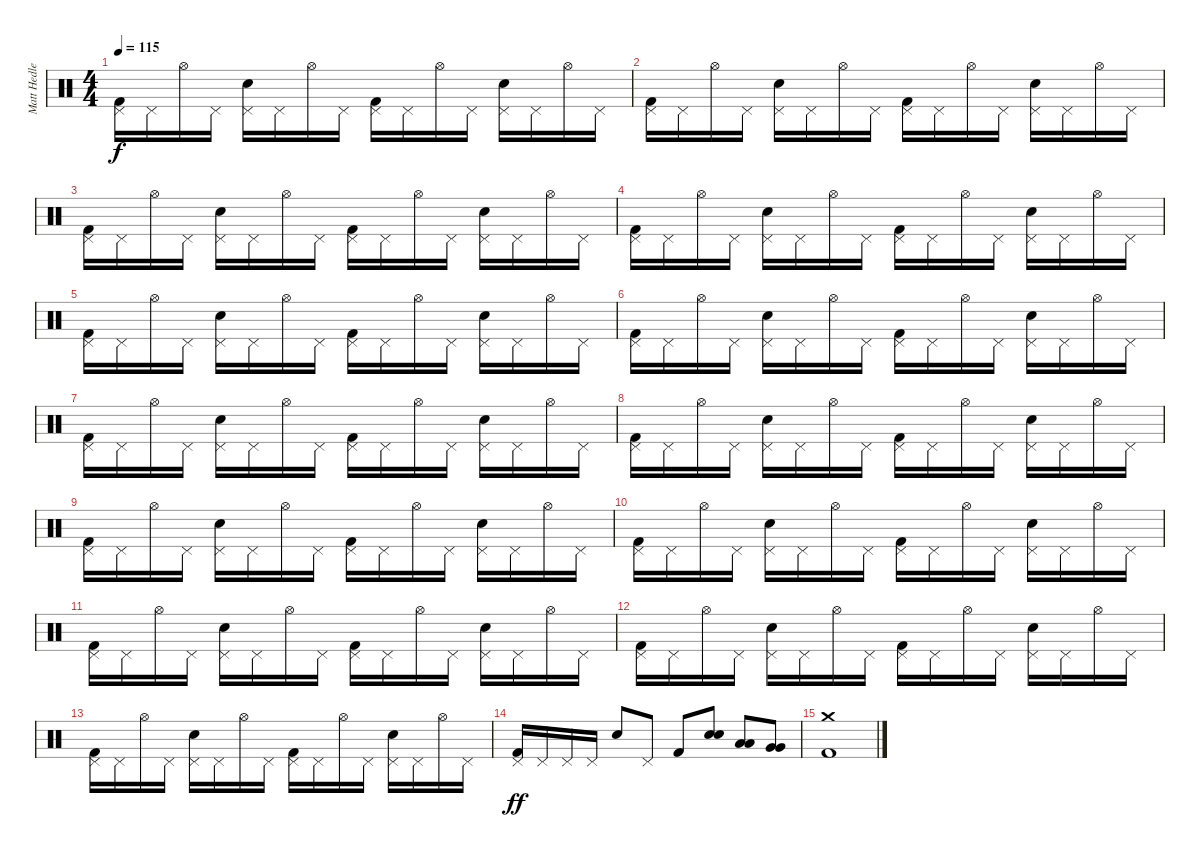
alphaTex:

\track ("Matt Hedlers" "Matt Hedle") {instrument percussion}
\staff {score}
\articulation defaults
\ts (4 4)
\tempo 115
\clef neutral
\ks c
("Pedal Hi-Hat (hit)" "Kick (hit) 2").16{dy f} "Pedal Hi-Hat (hit)".16 "Hi-Hat (open)".16 "Pedal Hi-Hat (hit)".16 ("Pedal Hi-Hat (hit)" "Snare (hit) 2").16 "Pedal Hi-Hat (hit)".16 "Hi-Hat (open)".16 "Pedal Hi-Hat (hit)".16 ("Pedal Hi-Hat (hit)" "Kick (hit) 2").16 "Pedal Hi-Hat (hit)".16 "Hi-Hat (open)".16 "Pedal Hi-Hat (hit)".16 ("Pedal Hi-Hat (hit)" "Snare (hit) 2").16 "Pedal Hi-Hat (hit)".16 "Hi-Hat (open)".16 "Pedal Hi-Hat (hit)".16 |
("Pedal Hi-Hat (hit)" "Kick (hit) 2").16 "Pedal Hi-Hat (hit)".16 "Hi-Hat (open)".16 "Pedal Hi-Hat (hit)".16 ("Pedal Hi-Hat (hit)" "Snare (hit) 2").16 "Pedal Hi-Hat (hit)".16 "Hi-Hat (open)".16 "Pedal Hi-Hat (hit)".16 ("Pedal Hi-Hat (hit)" "Kick (hit) 2").16 "Pedal Hi-Hat (hit)".16 "Hi-Hat (open)".16 "Pedal Hi-Hat (hit)".16 ("Pedal Hi-Hat (hit)" "Snare (hit) 2").16 "Pedal Hi-Hat (hit)".16 "Hi-Hat (open)".16 "Pedal Hi-Hat (hit)".16 |
("Pedal Hi-Hat (hit)" "Kick (hit) 2").16 "Pedal Hi-Hat (hit)".16 "Hi-Hat (open)".16 "Pedal Hi-Hat (hit)".16 ("Pedal Hi-Hat (hit)" "Snare (hit) 2").16 "Pedal Hi-Hat (hit)".16 "Hi-Hat (open)".16 "Pedal Hi-Hat (hit)".16 ("Pedal Hi-Hat (hit)" "Kick (hit) 2").16 "Pedal Hi-Hat (hit)".16 "Hi-Hat (open)".16 "Pedal Hi-Hat (hit)".16 ("Pedal Hi-Hat (hit)" "Snare (hit) 2").16 "Pedal Hi-Hat (hit)".16 "Hi-Hat (open)".16 "Pedal Hi-Hat (hit)".16 |
("Pedal Hi-Hat (hit)" "Kick (hit) 2").16 "Pedal Hi-Hat (hit)".16 "Hi-Hat (open)".16 "Pedal Hi-Hat (hit)".16 ("Pedal Hi-Hat (hit)" "Snare (hit) 2").16 "Pedal Hi-Hat (hit)".16 "Hi-Hat (open)".16 "Pedal Hi-Hat (hit)".16 ("Pedal Hi-Hat (hit)" "Kick (hit) 2").16 "Pedal Hi-Hat (hit)".16 "Hi-Hat (open)".16 "Pedal Hi-Hat (hit)".16 ("Pedal Hi-Hat (hit)" "Snare (hit) 2").16 "Pedal Hi-Hat (hit)".16 "Hi-Hat (open)".16 "Pedal Hi-Hat (hit)".16 |
("Pedal Hi-Hat (hit)" "Kick (hit) 2").16 "Pedal Hi-Hat (hit)".16 "Hi-Hat (open)".16 "Pedal Hi-Hat (hit)".16 ("Pedal Hi-Hat (hit)" "Snare (hit) 2").16 "Pedal Hi-Hat (hit)".16 "Hi-Hat (open)".16 "Pedal Hi-Hat (hit)".16 ("Pedal Hi-Hat (hit)" "Kick (hit) 2").16 "Pedal Hi-Hat (hit)".16 "Hi-Hat (open)".16 "Pedal Hi-Hat (hit)".16 ("Pedal Hi-Hat (hit)" "Snare (hit) 2").16 "Pedal Hi-Hat (hit)".16 "Hi-Hat (open)".16 "Pedal Hi-Hat (hit)".16 |
("Pedal Hi-Hat (hit)" "Kick (hit) 2").16 "Pedal Hi-Hat (hit)".16 "Hi-Hat (open)".16 "Pedal Hi-Hat (hit)".16 ("Pedal Hi-Hat (hit)" "Snare (hit) 2").16 "Pedal Hi-Hat (hit)".16 "Hi-Hat (open)".16 "Pedal Hi-Hat (hit)".16 ("Pedal Hi-Hat (hit)" "Kick (hit) 2").16 "Pedal Hi-Hat (hit)".16 "Hi-Hat (open)".16 "Pedal Hi-Hat (hit)".16 ("Pedal Hi-Hat (hit)" "Snare (hit) 2").16 "Pedal Hi-Hat (hit)".16 "Hi-Hat (open)".16 "Pedal Hi-Hat (hit)".16 |
("Pedal Hi-Hat (hit)" "Kick (hit) 2").16 "Pedal Hi-Hat (hit)".16 "Hi-Hat (open)".16 "Pedal Hi-Hat (hit)".16 ("Pedal Hi-Hat (hit)" "Snare (hit) 2").16 "Pedal Hi-Hat (hit)".16 "Hi-Hat (open)".16 "Pedal Hi-Hat (hit)".16 ("Pedal Hi-Hat (hit)" "Kick (hit) 2").16 "Pedal Hi-Hat (hit)".16 "Hi-Hat (open)".16 "Pedal Hi-Hat (hit)".16 ("Pedal Hi-Hat (hit)" "Snare (hit) 2").16 "Pedal Hi-Hat (hit)".16 "Hi-Hat (open)".16 "Pedal Hi-Hat (hit)".16 |
("Pedal Hi-Hat (hit)" "Kick (hit) 2").16 "Pedal Hi-Hat (hit)".16 "Hi-Hat (open)".16 "Pedal Hi-Hat (hit)".16 ("Pedal Hi-Hat (hit)" "Snare (hit) 2").16 "Pedal Hi-Hat (hit)".16 "Hi-Hat (open)".16 "Pedal Hi-Hat (hit)".16 ("Pedal Hi-Hat (hit)" "Kick (hit) 2").16 "Pedal Hi-Hat (hit)".16 "Hi-Hat (open)".16 "Pedal Hi-Hat (hit)".16 ("Pedal Hi-Hat (hit)" "Snare (hit) 2").16 "Pedal Hi-Hat (hit)".16 "Hi-Hat (open)".16 "Pedal Hi-Hat (hit)".16 |
("Pedal Hi-Hat (hit)" "Kick (hit) 2").16 "Pedal Hi-Hat (hit)".16 "Hi-Hat (open)".16 "Pedal Hi-Hat (hit)".16 ("Pedal Hi-Hat (hit)" "Snare (hit) 2").16 "Pedal Hi-Hat (hit)".16 "Hi-Hat (open)".16 "Pedal Hi-Hat (hit)".16 ("Pedal Hi-Hat (hit)" "Kick (hit) 2").16 "Pedal Hi-Hat (hit)".16 "Hi-Hat (open)".16 "Pedal Hi-Hat (hit)".16 ("Pedal Hi-Hat (hit)" "Snare (hit) 2").16 "Pedal Hi-Hat (hit)".16 "Hi-Hat (open)".16 "Pedal Hi-Hat (hit)".16 |
("Pedal Hi-Hat (hit)" "Kick (hit) 2").16 "Pedal Hi-Hat (hit)".16 "Hi-Hat (open)".16 "Pedal Hi-Hat (hit)".16 ("Pedal Hi-Hat (hit)" "Snare (hit) 2").16 "Pedal Hi-Hat (hit)".16 "Hi-Hat (open)".16 "Pedal Hi-Hat (hit)".16 ("Pedal Hi-Hat (hit)" "Kick (hit) 2").16 "Pedal Hi-Hat (hit)".16 "Hi-Hat (open)".16 "Pedal Hi-Hat (hit)".16 ("Pedal Hi-Hat (hit)" "Snare (hit) 2").16 "Pedal Hi-Hat (hit)".16 "Hi-Hat (open)".16 "Pedal Hi-Hat (hit)".16 |
("Pedal Hi-Hat (hit)" "Kick (hit) 2").16 "Pedal Hi-Hat (hit)".16 "Hi-Hat (open)".16 "Pedal Hi-Hat (hit)".16 ("Pedal Hi-Hat (hit)" "Snare (hit) 2").16 "Pedal Hi-Hat (hit)".16 "Hi-Hat (open)".16 "Pedal Hi-Hat (hit)".16 ("Pedal Hi-Hat (hit)" "Kick (hit) 2").16 "Pedal Hi-Hat (hit)".16 "Hi-Hat (open)".16 "Pedal Hi-Hat (hit)".16 ("Pedal Hi-Hat (hit)" "Snare (hit) 2").16 "Pedal Hi-Hat (hit)".16 "Hi-Hat (open)".16 "Pedal Hi-Hat (hit)".16 |
("Pedal Hi-Hat (hit)" "Kick (hit) 2").16 "Pedal Hi-Hat (hit)".16 "Hi-Hat (open)".16 "Pedal Hi-Hat (hit)".16 ("Pedal Hi-Hat (hit)" "Snare (hit) 2").16 "Pedal Hi-Hat (hit)".16 "Hi-Hat (open)".16 "Pedal Hi-Hat (hit)".16 ("Pedal Hi-Hat (hit)" "Kick (hit) 2").16 "Pedal Hi-Hat (hit)".16 "Hi-Hat (open)".16 "Pedal Hi-Hat (hit)".16 ("Pedal Hi-Hat (hit)" "Snare (hit) 2").16 "Pedal Hi-Hat (hit)".16 "Hi-Hat (open)".16 "Pedal Hi-Hat (hit)".16 |
("Pedal Hi-Hat (hit)" "Kick (hit) 2").16 "Pedal Hi-Hat (hit)".16 "Hi-Hat (open)".16 "Pedal Hi-Hat (hit)".16 ("Pedal Hi-Hat (hit)" "Snare (hit) 2").16 "Pedal Hi-Hat (hit)".16 "Hi-Hat (open)".16 "Pedal Hi-Hat (hit)".16 ("Pedal Hi-Hat (hit)" "Kick (hit) 2").16 "Pedal Hi-Hat (hit)".16 "Hi-Hat (open)".16 "Pedal Hi-Hat (hit)".16 ("Pedal Hi-Hat (hit)" "Snare (hit) 2").16 "Pedal Hi-Hat (hit)".16 "Hi-Hat (open)".16 "Pedal Hi-Hat (hit)".16 |
("Pedal Hi-Hat (hit)" "Kick (hit) 2").16{dy ff} "Pedal Hi-Hat (hit)".16 "Pedal Hi-Hat (hit)".16 "Pedal Hi-Hat (hit)".16 "Snare (hit) 2".8 "Pedal Hi-Hat (hit)".8 "Kick (hit) 2".8 ("Snare (hit) 2" "Snare (hit) 2").8 ("Low Tom (hit)" "Low Tom (hit)").8 ("Very Low Tom (hit)" "Very Low Tom (hit)").8 |
("Crash medium (hit)" "Kick (hit) 2").1
